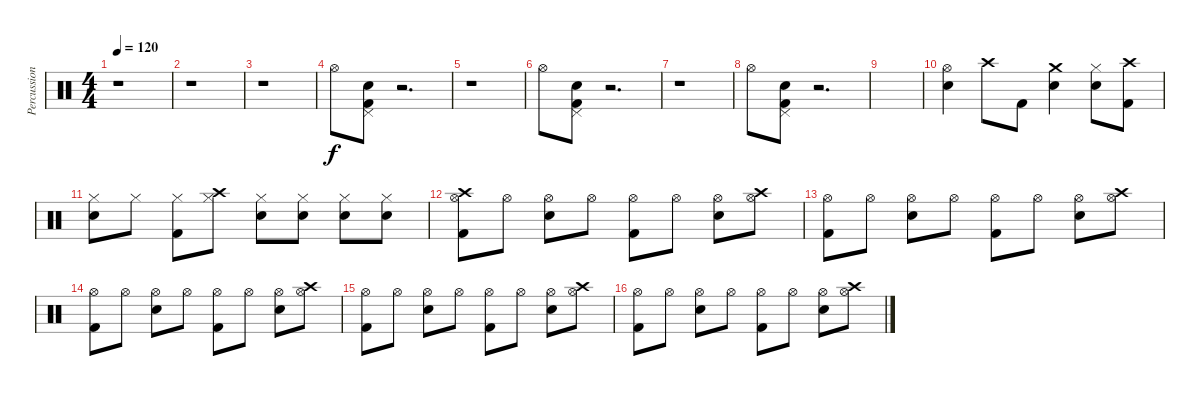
\track ("Percussion" "Percussion") {instrument percussion}
\staff {score}
\articulation defaults
\ts (4 4)
\tempo 120
\clef neutral
\ks c
r.1{dy f} |
r.1 |
r.1 |
"Hi-Hat (open)".8 ("Electric Snare (hit)" "Kick (hit) 2" "Pedal Hi-Hat (hit)").8 r.2{d} |
r.1 |
"Hi-Hat (open)".8 ("Electric Snare (hit)" "Kick (hit) 2" "Pedal Hi-Hat (hit)").8 r.2{d} |
r.1 |
"Hi-Hat (open)".8 ("Electric Snare (hit)" "Kick (hit) 2" "Pedal Hi-Hat (hit)").8 r.2{d} |
|
("Hi-Hat (open)" "Electric Snare (hit)").4 "Crash high (hit)".8 "Kick (hit) 2".8 ("Crash medium (hit)" "Electric Snare (hit)").4 ("Hi-Hat (closed)" "Electric Snare (hit)").8 ("Crash high (hit)" "Kick (hit) 2").8 |
("Hi-Hat (closed)" "Electric Snare (hit)").8 "Hi-Hat (closed)".8 ("Hi-Hat (closed)" "Kick (hit) 2").8 ("Hi-Hat (closed)" "Crash high (hit)").8 ("Hi-Hat (closed)" "Electric Snare (hit)").8 ("Hi-Hat (closed)" "Electric Snare (hit)").8 ("Hi-Hat (closed)" "Electric Snare (hit)").8 ("Hi-Hat (closed)" "Electric Snare (hit)").8 |
("Hi-Hat (open)" "Kick (hit) 2" "Crash high (hit)").8 "Hi-Hat (open)".8 ("Hi-Hat (open)" "Electric Snare (hit)").8 "Hi-Hat (open)".8 ("Hi-Hat (open)" "Kick (hit) 2").8 "Hi-Hat (open)".8 ("Hi-Hat (open)" "Electric Snare (hit)").8 ("Hi-Hat (open)" "Crash high (hit)").8 |
("Hi-Hat (open)" "Kick (hit) 2").8 "Hi-Hat (open)".8 ("Hi-Hat (open)" "Electric Snare (hit)").8 "Hi-Hat (open)".8 ("Hi-Hat (open)" "Kick (hit) 2").8 "Hi-Hat (open)".8 ("Hi-Hat (open)" "Electric Snare (hit)").8 ("Hi-Hat (open)" "Crash high (hit)").8 |
("Hi-Hat (open)" "Kick (hit) 2").8 "Hi-Hat (open)".8 ("Hi-Hat (open)" "Electric Snare (hit)").8 "Hi-Hat (open)".8 ("Hi-Hat (open)" "Kick (hit) 2").8 "Hi-Hat (open)".8 ("Hi-Hat (open)" "Electric Snare (hit)").8 ("Hi-Hat (open)" "Crash high (hit)").8 |
("Hi-Hat (open)" "Kick (hit) 2").8 "Hi-Hat (open)".8 ("Hi-Hat (open)" "Electric Snare (hit)").8 "Hi-Hat (open)".8 ("Hi-Hat (open)" "Kick (hit) 2").8 "Hi-Hat (open)".8 ("Hi-Hat (open)" "Electric Snare (hit)").8 ("Hi-Hat (open)" "Crash high (hit)").8 |
("Hi-Hat (open)" "Kick (hit) 2").8 "Hi-Hat (open)".8 ("Hi-Hat (open)" "Electric Snare (hit)").8 "Hi-Hat (open)".8 ("Hi-Hat (open)" "Kick (hit) 2").8 "Hi-Hat (open)".8 ("Hi-Hat (open)" "Electric Snare (hit)").8 ("Hi-Hat (open)" "Crash high (hit)").8
